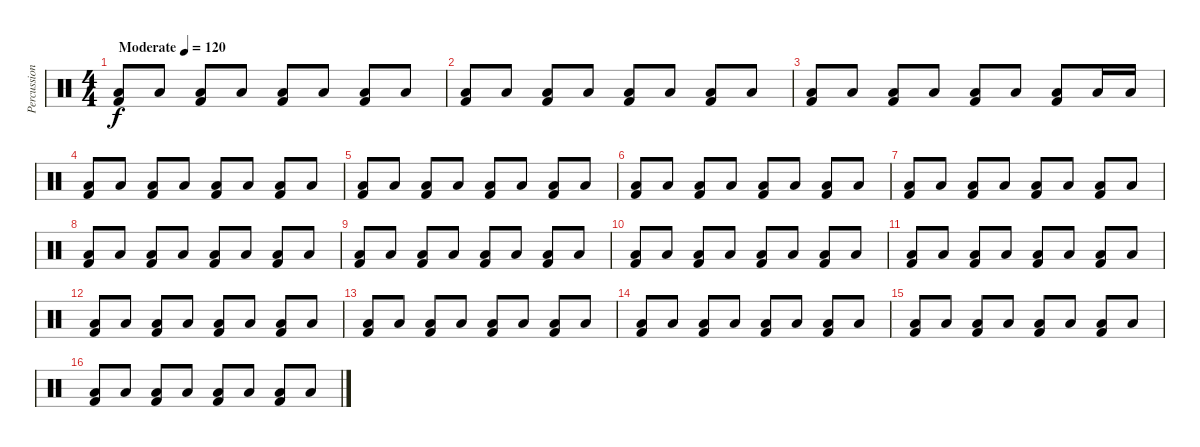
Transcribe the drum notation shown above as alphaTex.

\track ("Percussion" "Percussion") {instrument percussion}
\staff {score}
\articulation defaults
\ts (4 4)
\tempo (120 "Moderate")
\clef neutral
\ks c
("Low Floor Tom (hit)" "Kick (hit) 2").8{dy f} "Low Floor Tom (hit)".8 ("Low Floor Tom (hit)" "Kick (hit) 2").8 "Low Floor Tom (hit)".8 ("Low Floor Tom (hit)" "Kick (hit) 2").8 "Low Floor Tom (hit)".8 ("Low Floor Tom (hit)" "Kick (hit) 2").8 "Low Floor Tom (hit)".8 |
("Low Floor Tom (hit)" "Kick (hit) 2").8 "Low Floor Tom (hit)".8 ("Low Floor Tom (hit)" "Kick (hit) 2").8 "Low Floor Tom (hit)".8 ("Low Floor Tom (hit)" "Kick (hit) 2").8 "Low Floor Tom (hit)".8 ("Low Floor Tom (hit)" "Kick (hit) 2").8 "Low Floor Tom (hit)".8 |
("Low Floor Tom (hit)" "Kick (hit) 2").8 "Low Floor Tom (hit)".8 ("Low Floor Tom (hit)" "Kick (hit) 2").8 "Low Floor Tom (hit)".8 ("Low Floor Tom (hit)" "Kick (hit) 2").8 "Low Floor Tom (hit)".8 ("Low Floor Tom (hit)" "Kick (hit) 2").8 "Low Floor Tom (hit)".16 "Low Floor Tom (hit)".16 |
("Low Floor Tom (hit)" "Kick (hit) 2").8 "Low Floor Tom (hit)".8 ("Low Floor Tom (hit)" "Kick (hit) 2").8 "Low Floor Tom (hit)".8 ("Low Floor Tom (hit)" "Kick (hit) 2").8 "Low Floor Tom (hit)".8 ("Low Floor Tom (hit)" "Kick (hit) 2").8 "Low Floor Tom (hit)".8 |
("Low Floor Tom (hit)" "Kick (hit) 2").8 "Low Floor Tom (hit)".8 ("Low Floor Tom (hit)" "Kick (hit) 2").8 "Low Floor Tom (hit)".8 ("Low Floor Tom (hit)" "Kick (hit) 2").8 "Low Floor Tom (hit)".8 ("Low Floor Tom (hit)" "Kick (hit) 2").8 "Low Floor Tom (hit)".8 |
("Low Floor Tom (hit)" "Kick (hit) 2").8 "Low Floor Tom (hit)".8 ("Low Floor Tom (hit)" "Kick (hit) 2").8 "Low Floor Tom (hit)".8 ("Low Floor Tom (hit)" "Kick (hit) 2").8 "Low Floor Tom (hit)".8 ("Low Floor Tom (hit)" "Kick (hit) 2").8 "Low Floor Tom (hit)".8 |
("Low Floor Tom (hit)" "Kick (hit) 2").8 "Low Floor Tom (hit)".8 ("Low Floor Tom (hit)" "Kick (hit) 2").8 "Low Floor Tom (hit)".8 ("Low Floor Tom (hit)" "Kick (hit) 2").8 "Low Floor Tom (hit)".8 ("Low Floor Tom (hit)" "Kick (hit) 2").8 "Low Floor Tom (hit)".8 |
("Low Floor Tom (hit)" "Kick (hit) 2").8 "Low Floor Tom (hit)".8 ("Low Floor Tom (hit)" "Kick (hit) 2").8 "Low Floor Tom (hit)".8 ("Low Floor Tom (hit)" "Kick (hit) 2").8 "Low Floor Tom (hit)".8 ("Low Floor Tom (hit)" "Kick (hit) 2").8 "Low Floor Tom (hit)".8 |
("Low Floor Tom (hit)" "Kick (hit) 2").8 "Low Floor Tom (hit)".8 ("Low Floor Tom (hit)" "Kick (hit) 2").8 "Low Floor Tom (hit)".8 ("Low Floor Tom (hit)" "Kick (hit) 2").8 "Low Floor Tom (hit)".8 ("Low Floor Tom (hit)" "Kick (hit) 2").8 "Low Floor Tom (hit)".8 |
("Low Floor Tom (hit)" "Kick (hit) 2").8 "Low Floor Tom (hit)".8 ("Low Floor Tom (hit)" "Kick (hit) 2").8 "Low Floor Tom (hit)".8 ("Low Floor Tom (hit)" "Kick (hit) 2").8 "Low Floor Tom (hit)".8 ("Low Floor Tom (hit)" "Kick (hit) 2").8 "Low Floor Tom (hit)".8 |
("Low Floor Tom (hit)" "Kick (hit) 2").8 "Low Floor Tom (hit)".8 ("Low Floor Tom (hit)" "Kick (hit) 2").8 "Low Floor Tom (hit)".8 ("Low Floor Tom (hit)" "Kick (hit) 2").8 "Low Floor Tom (hit)".8 ("Low Floor Tom (hit)" "Kick (hit) 2").8 "Low Floor Tom (hit)".8 |
("Low Floor Tom (hit)" "Kick (hit) 2").8 "Low Floor Tom (hit)".8 ("Low Floor Tom (hit)" "Kick (hit) 2").8 "Low Floor Tom (hit)".8 ("Low Floor Tom (hit)" "Kick (hit) 2").8 "Low Floor Tom (hit)".8 ("Low Floor Tom (hit)" "Kick (hit) 2").8 "Low Floor Tom (hit)".8 |
("Low Floor Tom (hit)" "Kick (hit) 2").8 "Low Floor Tom (hit)".8 ("Low Floor Tom (hit)" "Kick (hit) 2").8 "Low Floor Tom (hit)".8 ("Low Floor Tom (hit)" "Kick (hit) 2").8 "Low Floor Tom (hit)".8 ("Low Floor Tom (hit)" "Kick (hit) 2").8 "Low Floor Tom (hit)".8 |
("Low Floor Tom (hit)" "Kick (hit) 2").8 "Low Floor Tom (hit)".8 ("Low Floor Tom (hit)" "Kick (hit) 2").8 "Low Floor Tom (hit)".8 ("Low Floor Tom (hit)" "Kick (hit) 2").8 "Low Floor Tom (hit)".8 ("Low Floor Tom (hit)" "Kick (hit) 2").8 "Low Floor Tom (hit)".8 |
("Low Floor Tom (hit)" "Kick (hit) 2").8 "Low Floor Tom (hit)".8 ("Low Floor Tom (hit)" "Kick (hit) 2").8 "Low Floor Tom (hit)".8 ("Low Floor Tom (hit)" "Kick (hit) 2").8 "Low Floor Tom (hit)".8 ("Low Floor Tom (hit)" "Kick (hit) 2").8 "Low Floor Tom (hit)".8 |
("Low Floor Tom (hit)" "Kick (hit) 2").8 "Low Floor Tom (hit)".8 ("Low Floor Tom (hit)" "Kick (hit) 2").8 "Low Floor Tom (hit)".8 ("Low Floor Tom (hit)" "Kick (hit) 2").8 "Low Floor Tom (hit)".8 ("Low Floor Tom (hit)" "Kick (hit) 2").8 "Low Floor Tom (hit)".8
